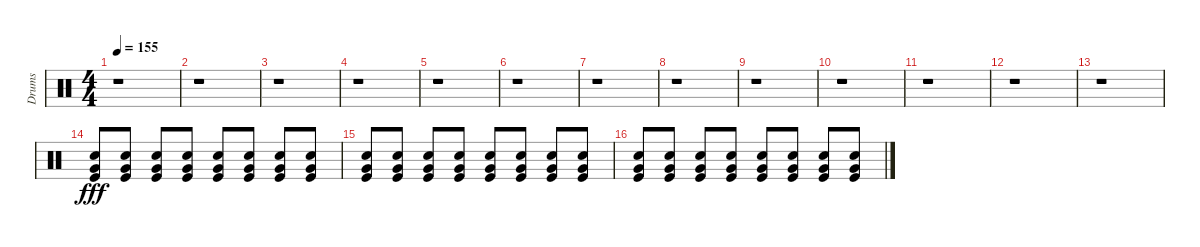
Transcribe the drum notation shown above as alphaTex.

\track ("Drums               " "Drums     ") {instrument percussion}
\staff {score}
\articulation defaults
\ts (4 4)
\tempo 155
\clef neutral
\ks c
r.1{dy fff} |
r.1 |
r.1 |
r.1 |
r.1 |
r.1 |
r.1 |
r.1 |
r.1 |
r.1 |
r.1 |
r.1 |
r.1 |
("Kick (hit)" "Snare (hit) 2" "Very Low Tom (hit)").8{volume 2} ("Kick (hit)" "Snare (hit) 2" "Very Low Tom (hit)").8 ("Kick (hit)" "Snare (hit) 2" "Very Low Tom (hit)").8 ("Kick (hit)" "Snare (hit) 2" "Very Low Tom (hit)").8 ("Kick (hit)" "Snare (hit) 2" "Very Low Tom (hit)").8 ("Kick (hit)" "Snare (hit) 2" "Very Low Tom (hit)").8 ("Kick (hit)" "Snare (hit) 2" "Very Low Tom (hit)").8 ("Kick (hit)" "Snare (hit) 2" "Very Low Tom (hit)").8 |
("Kick (hit)" "Snare (hit) 2" "Very Low Tom (hit)").8 ("Kick (hit)" "Snare (hit) 2" "Very Low Tom (hit)").8 ("Kick (hit)" "Snare (hit) 2" "Very Low Tom (hit)").8 ("Kick (hit)" "Snare (hit) 2" "Very Low Tom (hit)").8 ("Kick (hit)" "Snare (hit) 2" "Very Low Tom (hit)").8 ("Kick (hit)" "Snare (hit) 2" "Very Low Tom (hit)").8 ("Kick (hit)" "Snare (hit) 2" "Very Low Tom (hit)").8 ("Kick (hit)" "Snare (hit) 2" "Very Low Tom (hit)").8 |
("Kick (hit)" "Snare (hit) 2" "Very Low Tom (hit)").8{volume 4} ("Kick (hit)" "Snare (hit) 2" "Very Low Tom (hit)").8 ("Kick (hit)" "Snare (hit) 2" "Very Low Tom (hit)").8 ("Kick (hit)" "Snare (hit) 2" "Very Low Tom (hit)").8 ("Kick (hit)" "Snare (hit) 2" "Very Low Tom (hit)").8 ("Kick (hit)" "Snare (hit) 2" "Very Low Tom (hit)").8 ("Kick (hit)" "Snare (hit) 2" "Very Low Tom (hit)").8 ("Kick (hit)" "Snare (hit) 2" "Very Low Tom (hit)").8
